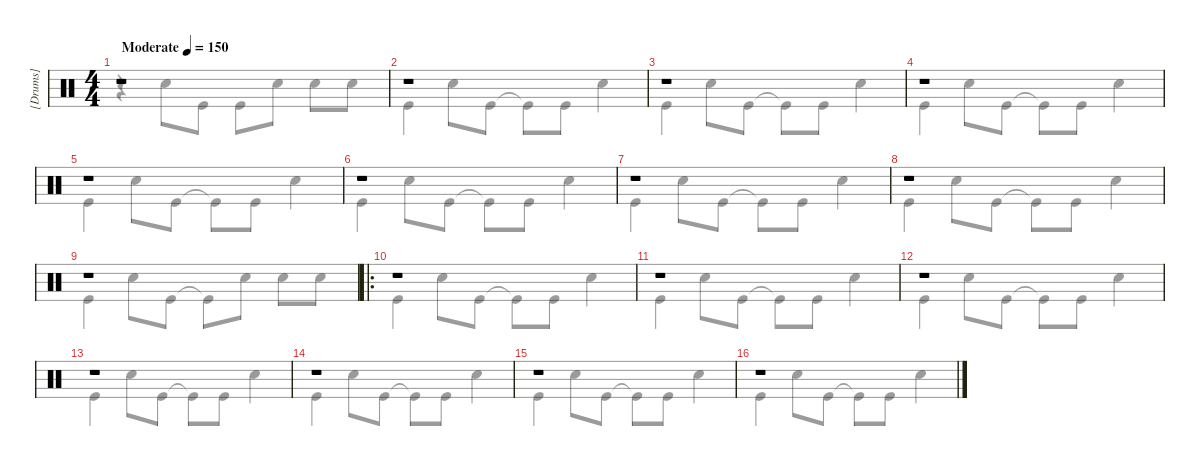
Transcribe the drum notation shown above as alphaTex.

\hideDynamics
\bracketExtendMode groupsimilarinstruments
\firstSystemTrackNameMode fullname
\otherSystemsTrackNameMode fullname
\otherSystemsTrackNameOrientation horizontal
\track ("[Drums]" "Drums") {instrument percussion}
\staff {score}
\articulation defaults
\voice
\ts (4 4)
\beaming (8 2 2 2 2)
\tempo (150 "Moderate")
\clef neutral
\ks c
r.1{dy mf} |
r.1 |
r.1 |
r.1 |
r.1 |
r.1 |
r.1 |
r.1 |
r.1 |
\ro
r.1 |
r.1 |
r.1 |
r.1 |
r.1 |
r.1 |
r.1
\voice
\clef neutral
\ottava regular
\simile none
\ks c
r.4{dy f} "Snare (hit) 2".8 "Kick (hit)".8 "Kick (hit)".8 "Snare (hit) 2".8 "Snare (hit) 2".8 "Snare (hit) 2".8 |
"Kick (hit)".4 "Snare (hit) 2".8 "Kick (hit)".8 "Kick (hit)"{t}.8 "Kick (hit)".8 "Snare (hit) 2".4 |
"Kick (hit)".4 "Snare (hit) 2".8 "Kick (hit)".8 "Kick (hit)"{t}.8 "Kick (hit)".8 "Snare (hit) 2".4 |
"Kick (hit)".4 "Snare (hit) 2".8 "Kick (hit)".8 "Kick (hit)"{t}.8 "Kick (hit)".8 "Snare (hit) 2".4 |
"Kick (hit)".4 "Snare (hit) 2".8 "Kick (hit)".8 "Kick (hit)"{t}.8 "Kick (hit)".8 "Snare (hit) 2".4 |
"Kick (hit)".4 "Snare (hit) 2".8 "Kick (hit)".8 "Kick (hit)"{t}.8 "Kick (hit)".8 "Snare (hit) 2".4 |
"Kick (hit)".4 "Snare (hit) 2".8 "Kick (hit)".8 "Kick (hit)"{t}.8 "Kick (hit)".8 "Snare (hit) 2".4 |
"Kick (hit)".4 "Snare (hit) 2".8 "Kick (hit)".8 "Kick (hit)"{t}.8 "Kick (hit)".8 "Snare (hit) 2".4 |
"Kick (hit)".4 "Snare (hit) 2".8 "Kick (hit)".8 "Kick (hit)"{t}.8 "Snare (hit) 2".8 "Snare (hit) 2".8 "Snare (hit) 2".8 |
"Kick (hit)".4 "Snare (hit) 2".8 "Kick (hit)".8 "Kick (hit)"{t}.8 "Kick (hit)".8 "Snare (hit) 2".4 |
"Kick (hit)".4 "Snare (hit) 2".8 "Kick (hit)".8 "Kick (hit)"{t}.8 "Kick (hit)".8 "Snare (hit) 2".4 |
"Kick (hit)".4 "Snare (hit) 2".8 "Kick (hit)".8 "Kick (hit)"{t}.8 "Kick (hit)".8 "Snare (hit) 2".4 |
"Kick (hit)".4 "Snare (hit) 2".8 "Kick (hit)".8 "Kick (hit)"{t}.8 "Kick (hit)".8 "Snare (hit) 2".4 |
"Kick (hit)".4 "Snare (hit) 2".8 "Kick (hit)".8 "Kick (hit)"{t}.8 "Kick (hit)".8 "Snare (hit) 2".4 |
"Kick (hit)".4 "Snare (hit) 2".8 "Kick (hit)".8 "Kick (hit)"{t}.8 "Kick (hit)".8 "Snare (hit) 2".4 |
"Kick (hit)".4 "Snare (hit) 2".8 "Kick (hit)".8 "Kick (hit)"{t}.8 "Kick (hit)".8 "Snare (hit) 2".4
